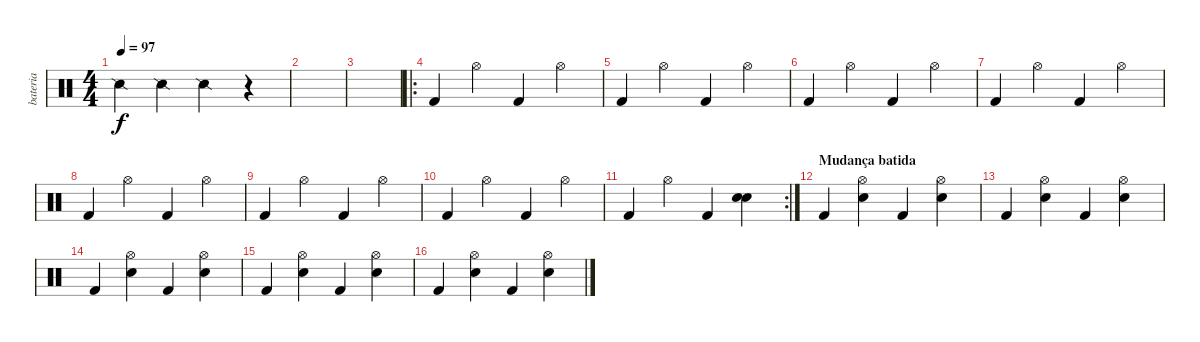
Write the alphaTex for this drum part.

\track ("bateria" "bateria") {instrument percussion}
\staff {score}
\articulation defaults
\ts (4 4)
\tempo 97
\clef neutral
\ks c "Snare (side stick) 2".4{dy f} "Snare (side stick) 2".4 "Snare (side stick) 2".4
r.4 |
|
|
\ro "Kick (hit) 2".4 "Hi-Hat (open)".4 "Kick (hit) 2".4 "Hi-Hat (open)".4
|
"Kick (hit) 2".4 "Hi-Hat (open)".4 "Kick (hit) 2".4 "Hi-Hat (open)".4 |
"Kick (hit) 2".4 "Hi-Hat (open)".4 "Kick (hit) 2".4 "Hi-Hat (open)".4 |
"Kick (hit) 2".4 "Hi-Hat (open)".4 "Kick (hit) 2".4 "Hi-Hat (open)".4 |
"Kick (hit) 2".4 "Hi-Hat (open)".4 "Kick (hit) 2".4 "Hi-Hat (open)".4 |
"Kick (hit) 2".4 "Hi-Hat (open)".4 "Kick (hit) 2".4 "Hi-Hat (open)".4 |
"Kick (hit) 2".4 "Hi-Hat (open)".4 "Kick (hit) 2".4 "Hi-Hat (open)".4 |
\rc 2 "Kick (hit) 2".4 "Hi-Hat (open)".4 "Kick (hit) 2".4
("Electric Snare (hit)" "Snare (hit) 2").4 |
\section ("" "Mudança batida")
"Kick (hit) 2".4 ("Hi-Hat (open)" "Electric Snare (hit)").4 "Kick (hit) 2".4 ("Hi-Hat (open)" "Electric Snare (hit)").4 |
"Kick (hit) 2".4 ("Hi-Hat (open)" "Electric Snare (hit)").4 "Kick (hit) 2".4 ("Hi-Hat (open)" "Electric Snare (hit)").4 |
"Kick (hit) 2".4 ("Hi-Hat (open)" "Electric Snare (hit)").4 "Kick (hit) 2".4 ("Hi-Hat (open)" "Electric Snare (hit)").4 |
"Kick (hit) 2".4 ("Hi-Hat (open)" "Electric Snare (hit)").4 "Kick (hit) 2".4 ("Hi-Hat (open)" "Electric Snare (hit)").4 |
"Kick (hit) 2".4 ("Hi-Hat (open)" "Electric Snare (hit)").4 "Kick (hit) 2".4 ("Hi-Hat (open)" "Electric Snare (hit)").4
